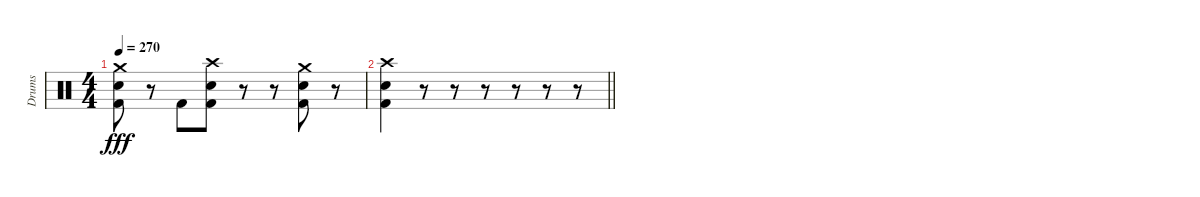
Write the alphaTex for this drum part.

\track ("Drums" "Drums") {instrument percussion}
\staff {score}
\articulation defaults
\ts (4 4)
\tempo 270
\clef neutral
\ks c
("Crash medium (hit)" "Electric Snare (hit)" "Kick (hit) 2").8{dy fff} r.8 "Kick (hit) 2".8 ("Crash high (hit)" "Electric Snare (hit)" "Kick (hit) 2").8 r.8 r.8 ("Crash medium (hit)" "Electric Snare (hit)" "Kick (hit) 2").8 r.8 |
\barLineRight lightlight
("Crash high (hit)" "Electric Snare (hit)" "Kick (hit) 2").4 r.8 r.8 r.8 r.8 r.8 r.8
